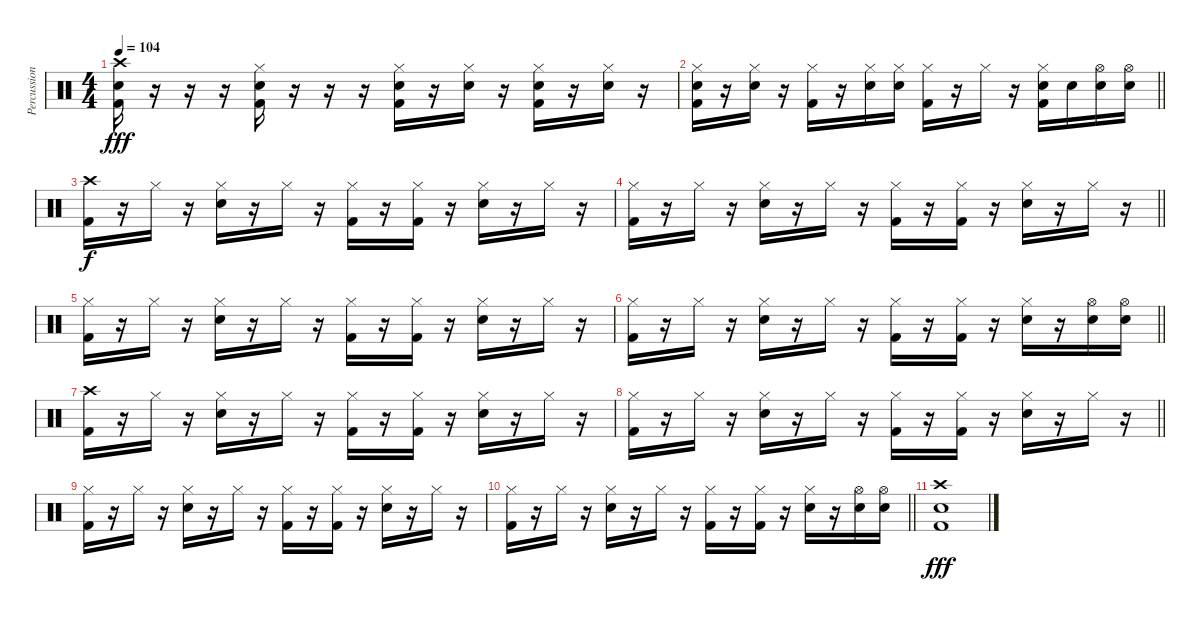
\track ("Percussion" "Percussion") {instrument percussion}
\staff {score}
\articulation defaults
\ts (4 4)
\tempo 104
\clef neutral
\ks c
("Crash high (hit)" "Electric Snare (hit)" "Kick (hit) 2").16{dy fff} r.16 r.16 r.16 ("Hi-Hat (closed)" "Electric Snare (hit)" "Kick (hit) 2").16 r.16 r.16 r.16 ("Hi-Hat (closed)" "Electric Snare (hit)" "Kick (hit) 2").16 r.16 ("Hi-Hat (closed)" "Electric Snare (hit)").16 r.16 ("Hi-Hat (closed)" "Electric Snare (hit)" "Kick (hit) 2").16 r.16 ("Hi-Hat (closed)" "Electric Snare (hit)").16 r.16 |
\barLineRight lightlight
("Hi-Hat (closed)" "Electric Snare (hit)" "Kick (hit) 2").16 r.16 ("Hi-Hat (closed)" "Electric Snare (hit)").16 r.16 ("Hi-Hat (closed)" "Kick (hit) 2").16 r.16 ("Hi-Hat (closed)" "Electric Snare (hit)").16 ("Hi-Hat (closed)" "Electric Snare (hit)").16 ("Hi-Hat (closed)" "Kick (hit) 2").16 r.16 "Hi-Hat (closed)".16 r.16 ("Hi-Hat (closed)" "Electric Snare (hit)" "Kick (hit) 2").16 "Electric Snare (hit)".16 ("Hi-Hat (open)" "Electric Snare (hit)").16 ("Hi-Hat (open)" "Electric Snare (hit)").16 |
("Crash high (hit)" "Kick (hit) 2").16{dy f} r.16 "Hi-Hat (closed)".16 r.16 ("Hi-Hat (closed)" "Electric Snare (hit)").16 r.16 "Hi-Hat (closed)".16 r.16 ("Hi-Hat (closed)" "Kick (hit) 2").16 r.16 ("Hi-Hat (closed)" "Kick (hit) 2").16 r.16 ("Hi-Hat (closed)" "Electric Snare (hit)").16 r.16 "Hi-Hat (closed)".16 r.16 |
\barLineRight lightlight
("Hi-Hat (closed)" "Kick (hit) 2").16 r.16 "Hi-Hat (closed)".16 r.16 ("Hi-Hat (closed)" "Electric Snare (hit)").16 r.16 "Hi-Hat (closed)".16 r.16 ("Hi-Hat (closed)" "Kick (hit) 2").16 r.16 ("Hi-Hat (closed)" "Kick (hit) 2").16 r.16 ("Hi-Hat (closed)" "Electric Snare (hit)").16 r.16 "Hi-Hat (closed)".16 r.16 |
("Hi-Hat (closed)" "Kick (hit) 2").16 r.16 "Hi-Hat (closed)".16 r.16 ("Hi-Hat (closed)" "Electric Snare (hit)").16 r.16 "Hi-Hat (closed)".16 r.16 ("Hi-Hat (closed)" "Kick (hit) 2").16 r.16 ("Hi-Hat (closed)" "Kick (hit) 2").16 r.16 ("Hi-Hat (closed)" "Electric Snare (hit)").16 r.16 "Hi-Hat (closed)".16 r.16 |
\barLineRight lightlight
("Hi-Hat (closed)" "Kick (hit) 2").16 r.16 "Hi-Hat (closed)".16 r.16 ("Hi-Hat (closed)" "Electric Snare (hit)").16 r.16 "Hi-Hat (closed)".16 r.16 ("Hi-Hat (closed)" "Kick (hit) 2").16 r.16 ("Hi-Hat (closed)" "Kick (hit) 2").16 r.16 ("Hi-Hat (closed)" "Electric Snare (hit)").16 r.16 ("Hi-Hat (open)" "Electric Snare (hit)").16 ("Hi-Hat (open)" "Electric Snare (hit)").16 |
("Crash high (hit)" "Kick (hit) 2").16 r.16 "Hi-Hat (closed)".16 r.16 ("Hi-Hat (closed)" "Electric Snare (hit)").16 r.16 "Hi-Hat (closed)".16 r.16 ("Hi-Hat (closed)" "Kick (hit) 2").16 r.16 ("Hi-Hat (closed)" "Kick (hit) 2").16 r.16 ("Hi-Hat (closed)" "Electric Snare (hit)").16 r.16 "Hi-Hat (closed)".16 r.16 |
\barLineRight lightlight
("Hi-Hat (closed)" "Kick (hit) 2").16 r.16 "Hi-Hat (closed)".16 r.16 ("Hi-Hat (closed)" "Electric Snare (hit)").16 r.16 "Hi-Hat (closed)".16 r.16 ("Hi-Hat (closed)" "Kick (hit) 2").16 r.16 ("Hi-Hat (closed)" "Kick (hit) 2").16 r.16 ("Hi-Hat (closed)" "Electric Snare (hit)").16 r.16 "Hi-Hat (closed)".16 r.16 |
("Hi-Hat (closed)" "Kick (hit) 2").16 r.16 "Hi-Hat (closed)".16 r.16 ("Hi-Hat (closed)" "Electric Snare (hit)").16 r.16 "Hi-Hat (closed)".16 r.16 ("Hi-Hat (closed)" "Kick (hit) 2").16 r.16 ("Hi-Hat (closed)" "Kick (hit) 2").16 r.16 ("Hi-Hat (closed)" "Electric Snare (hit)").16 r.16 "Hi-Hat (closed)".16 r.16 |
\barLineRight lightlight
("Hi-Hat (closed)" "Kick (hit) 2").16 r.16 "Hi-Hat (closed)".16 r.16 ("Hi-Hat (closed)" "Electric Snare (hit)").16 r.16 "Hi-Hat (closed)".16 r.16 ("Hi-Hat (closed)" "Kick (hit) 2").16 r.16 ("Hi-Hat (closed)" "Kick (hit) 2").16 r.16 ("Hi-Hat (closed)" "Electric Snare (hit)").16 r.16 ("Hi-Hat (open)" "Electric Snare (hit)").16 ("Hi-Hat (open)" "Electric Snare (hit)").16 |
("Crash high (hit)" "Electric Snare (hit)" "Kick (hit) 2").1{dy fff}
